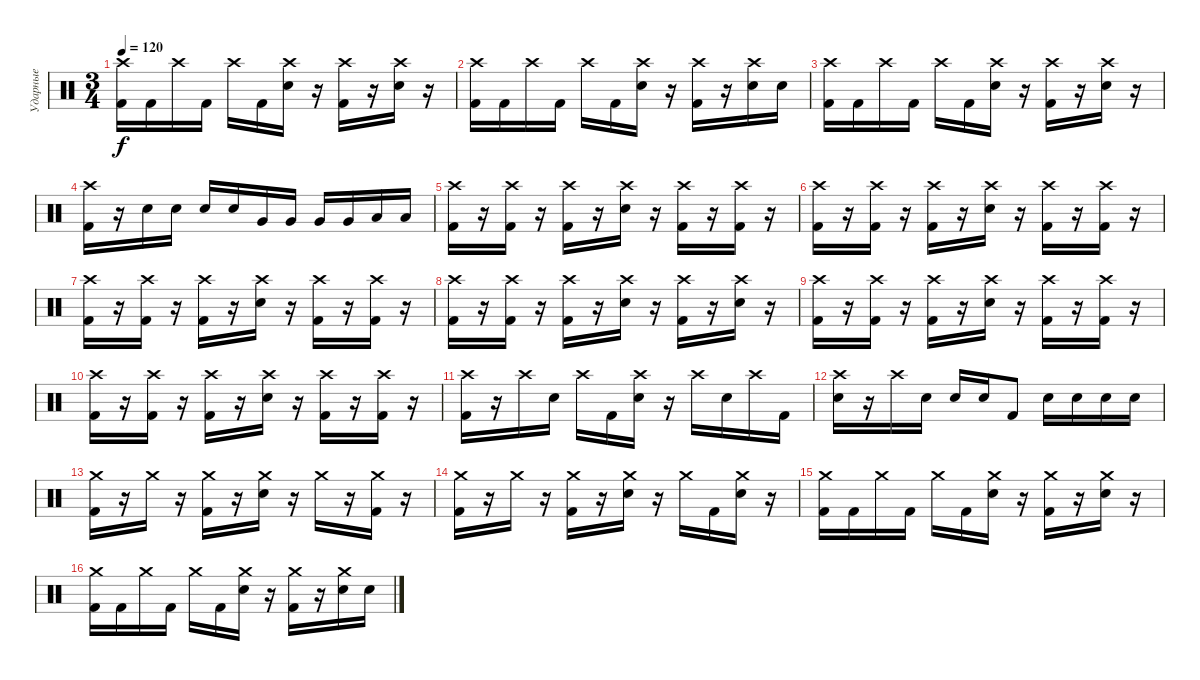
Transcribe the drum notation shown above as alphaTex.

\track ("Ударные" "Ударные") {instrument percussion}
\staff {score}
\articulation defaults
\ts (3 4)
\tempo 120
\clef neutral
\ks c
("Crash high (hit)" "Kick (hit) 2").16{dy f} "Kick (hit) 2".16 "Crash high (hit)".16 "Kick (hit) 2".16 "Crash high (hit)".16 "Kick (hit) 2".16 ("Crash high (hit)" "Electric Snare (hit)").16 r.16 ("Crash high (hit)" "Kick (hit) 2").16 r.16 ("Crash high (hit)" "Electric Snare (hit)").16 r.16 |
("Crash high (hit)" "Kick (hit) 2").16 "Kick (hit) 2".16 "Crash high (hit)".16 "Kick (hit) 2".16 "Crash high (hit)".16 "Kick (hit) 2".16 ("Crash high (hit)" "Electric Snare (hit)").16 r.16 ("Crash high (hit)" "Kick (hit) 2").16 r.16 ("Crash high (hit)" "Electric Snare (hit)").16 "Electric Snare (hit)".16 |
("Crash high (hit)" "Kick (hit) 2").16 "Kick (hit) 2".16 "Crash high (hit)".16 "Kick (hit) 2".16 "Crash high (hit)".16 "Kick (hit) 2".16 ("Crash high (hit)" "Electric Snare (hit)").16 r.16 ("Crash high (hit)" "Kick (hit) 2").16 r.16 ("Crash high (hit)" "Electric Snare (hit)").16 r.16 |
("Crash high (hit)" "Kick (hit) 2").16 r.16 "Electric Snare (hit)".16 "Electric Snare (hit)".16 "Electric Snare (hit)".16 "Electric Snare (hit)".16 "Very Low Tom (hit)".16 "Very Low Tom (hit)".16 "Very Low Tom (hit)".16 "Very Low Tom (hit)".16 "Low Floor Tom (hit)".16 "Low Floor Tom (hit)".16 |
("Crash high (hit)" "Kick (hit) 2").16 r.16 ("Crash high (hit)" "Kick (hit) 2").16 r.16 ("Crash high (hit)" "Kick (hit) 2").16 r.16 ("Crash high (hit)" "Electric Snare (hit)").16 r.16 ("Crash high (hit)" "Kick (hit) 2").16 r.16 ("Crash high (hit)" "Kick (hit) 2").16 r.16 |
("Crash high (hit)" "Kick (hit) 2").16 r.16 ("Crash high (hit)" "Kick (hit) 2").16 r.16 ("Crash high (hit)" "Kick (hit) 2").16 r.16 ("Crash high (hit)" "Electric Snare (hit)").16 r.16 ("Crash high (hit)" "Kick (hit) 2").16 r.16 ("Crash high (hit)" "Kick (hit) 2").16 r.16 |
("Crash high (hit)" "Kick (hit) 2").16 r.16 ("Crash high (hit)" "Kick (hit) 2").16 r.16 ("Crash high (hit)" "Kick (hit) 2").16 r.16 ("Crash high (hit)" "Electric Snare (hit)").16 r.16 ("Crash high (hit)" "Kick (hit) 2").16 r.16 ("Crash high (hit)" "Kick (hit) 2").16 r.16 |
("Crash high (hit)" "Kick (hit) 2").16 r.16 ("Crash high (hit)" "Kick (hit) 2").16 r.16 ("Crash high (hit)" "Kick (hit) 2").16 r.16 ("Crash high (hit)" "Electric Snare (hit)").16 r.16 ("Crash high (hit)" "Kick (hit) 2").16 r.16 ("Crash high (hit)" "Electric Snare (hit)").16 r.16 |
("Crash high (hit)" "Kick (hit) 2").16 r.16 ("Crash high (hit)" "Kick (hit) 2").16 r.16 ("Crash high (hit)" "Kick (hit) 2").16 r.16 ("Crash high (hit)" "Electric Snare (hit)").16 r.16 ("Crash high (hit)" "Kick (hit) 2").16 r.16 ("Crash high (hit)" "Kick (hit) 2").16 r.16 |
("Crash high (hit)" "Kick (hit) 2").16 r.16 ("Crash high (hit)" "Kick (hit) 2").16 r.16 ("Crash high (hit)" "Kick (hit) 2").16 r.16 ("Crash high (hit)" "Electric Snare (hit)").16 r.16 ("Crash high (hit)" "Kick (hit) 2").16 r.16 ("Crash high (hit)" "Kick (hit) 2").16 r.16 |
("Crash high (hit)" "Kick (hit) 2").16 r.16 "Crash high (hit)".16 "Electric Snare (hit)".16 "Crash high (hit)".16 "Kick (hit) 2".16 ("Crash high (hit)" "Electric Snare (hit)").16 r.16 "Crash high (hit)".16 "Electric Snare (hit)".16 "Crash high (hit)".16 "Kick (hit) 2".16 |
("Crash high (hit)" "Electric Snare (hit)").16 r.16 "Crash high (hit)".16 "Electric Snare (hit)".16 "Electric Snare (hit)".16 "Electric Snare (hit)".16 "Kick (hit) 2".8 "Electric Snare (hit)".16 "Electric Snare (hit)".16 "Electric Snare (hit)".16 "Electric Snare (hit)".16 |
("Crash medium (hit)" "Kick (hit) 2").16 r.16 "Crash medium (hit)".16 r.16 ("Crash medium (hit)" "Kick (hit) 2").16 r.16 ("Crash medium (hit)" "Electric Snare (hit)").16 r.16 "Crash medium (hit)".16 r.16 ("Crash medium (hit)" "Kick (hit) 2").16 r.16 |
("Crash medium (hit)" "Kick (hit) 2").16 r.16 "Crash medium (hit)".16 r.16 ("Crash medium (hit)" "Kick (hit) 2").16 r.16 ("Crash medium (hit)" "Electric Snare (hit)").16 r.16 "Crash medium (hit)".16 "Kick (hit) 2".16 ("Crash medium (hit)" "Electric Snare (hit)").16 r.16 |
("Crash medium (hit)" "Kick (hit) 2").16 "Kick (hit) 2".16 "Crash medium (hit)".16 "Kick (hit) 2".16 "Crash medium (hit)".16 "Kick (hit) 2".16 ("Crash medium (hit)" "Electric Snare (hit)").16 r.16 ("Crash medium (hit)" "Kick (hit) 2").16 r.16 ("Crash medium (hit)" "Electric Snare (hit)").16 r.16 |
("Crash medium (hit)" "Kick (hit) 2").16 "Kick (hit) 2".16 "Crash medium (hit)".16 "Kick (hit) 2".16 "Crash medium (hit)".16 "Kick (hit) 2".16 ("Crash medium (hit)" "Electric Snare (hit)").16 r.16 ("Crash medium (hit)" "Kick (hit) 2").16 r.16 ("Crash medium (hit)" "Electric Snare (hit)").16 "Electric Snare (hit)".16
